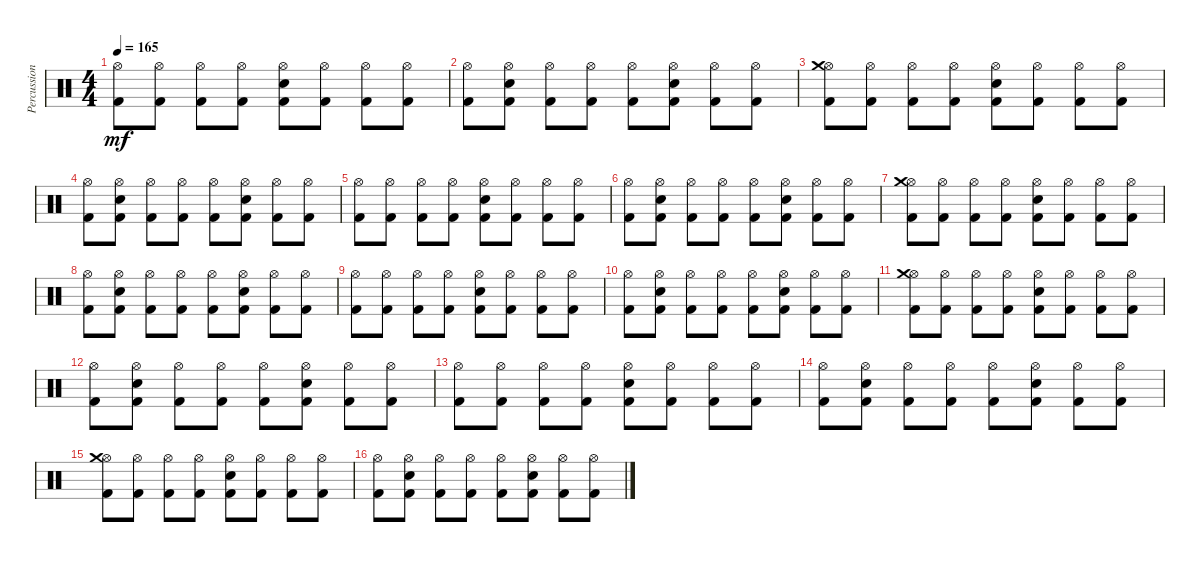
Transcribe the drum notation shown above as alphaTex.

\track ("Percussion" "Percussion") {instrument percussion}
\staff {score}
\articulation defaults
\ts (4 4)
\tempo 165
\clef neutral
\ks c
("Hi-Hat (open)" "Kick (hit) 2").8{dy mf} ("Hi-Hat (open)" "Kick (hit) 2").8 ("Hi-Hat (open)" "Kick (hit) 2").8 ("Hi-Hat (open)" "Kick (hit) 2").8 ("Hi-Hat (open)" "Electric Snare (hit)" "Kick (hit) 2").8 ("Hi-Hat (open)" "Kick (hit) 2").8 ("Hi-Hat (open)" "Kick (hit) 2").8 ("Hi-Hat (open)" "Kick (hit) 2").8 |
("Hi-Hat (open)" "Kick (hit) 2").8 ("Hi-Hat (open)" "Electric Snare (hit)" "Kick (hit) 2").8 ("Hi-Hat (open)" "Kick (hit) 2").8 ("Hi-Hat (open)" "Kick (hit) 2").8 ("Hi-Hat (open)" "Kick (hit) 2").8 ("Hi-Hat (open)" "Electric Snare (hit)" "Kick (hit) 2").8 ("Hi-Hat (open)" "Kick (hit) 2").8 ("Hi-Hat (open)" "Kick (hit) 2").8 |
("Hi-Hat (open)" "Crash medium (hit)" "Kick (hit) 2").8 ("Hi-Hat (open)" "Kick (hit) 2").8 ("Hi-Hat (open)" "Kick (hit) 2").8 ("Hi-Hat (open)" "Kick (hit) 2").8 ("Hi-Hat (open)" "Electric Snare (hit)" "Kick (hit) 2").8 ("Hi-Hat (open)" "Kick (hit) 2").8 ("Hi-Hat (open)" "Kick (hit) 2").8 ("Hi-Hat (open)" "Kick (hit) 2").8 |
("Hi-Hat (open)" "Kick (hit) 2").8 ("Hi-Hat (open)" "Electric Snare (hit)" "Kick (hit) 2").8 ("Hi-Hat (open)" "Kick (hit) 2").8 ("Hi-Hat (open)" "Kick (hit) 2").8 ("Hi-Hat (open)" "Kick (hit) 2").8 ("Hi-Hat (open)" "Electric Snare (hit)" "Kick (hit) 2").8 ("Hi-Hat (open)" "Kick (hit) 2").8 ("Hi-Hat (open)" "Kick (hit) 2").8 |
("Hi-Hat (open)" "Kick (hit) 2").8 ("Hi-Hat (open)" "Kick (hit) 2").8 ("Hi-Hat (open)" "Kick (hit) 2").8 ("Hi-Hat (open)" "Kick (hit) 2").8 ("Hi-Hat (open)" "Electric Snare (hit)" "Kick (hit) 2").8 ("Hi-Hat (open)" "Kick (hit) 2").8 ("Hi-Hat (open)" "Kick (hit) 2").8 ("Hi-Hat (open)" "Kick (hit) 2").8 |
("Hi-Hat (open)" "Kick (hit) 2").8 ("Hi-Hat (open)" "Electric Snare (hit)" "Kick (hit) 2").8 ("Hi-Hat (open)" "Kick (hit) 2").8 ("Hi-Hat (open)" "Kick (hit) 2").8 ("Hi-Hat (open)" "Kick (hit) 2").8 ("Hi-Hat (open)" "Electric Snare (hit)" "Kick (hit) 2").8 ("Hi-Hat (open)" "Kick (hit) 2").8 ("Hi-Hat (open)" "Kick (hit) 2").8 |
("Hi-Hat (open)" "Crash medium (hit)" "Kick (hit) 2").8 ("Hi-Hat (open)" "Kick (hit) 2").8 ("Hi-Hat (open)" "Kick (hit) 2").8 ("Hi-Hat (open)" "Kick (hit) 2").8 ("Hi-Hat (open)" "Electric Snare (hit)" "Kick (hit) 2").8 ("Hi-Hat (open)" "Kick (hit) 2").8 ("Hi-Hat (open)" "Kick (hit) 2").8 ("Hi-Hat (open)" "Kick (hit) 2").8 |
("Hi-Hat (open)" "Kick (hit) 2").8 ("Hi-Hat (open)" "Electric Snare (hit)" "Kick (hit) 2").8 ("Hi-Hat (open)" "Kick (hit) 2").8 ("Hi-Hat (open)" "Kick (hit) 2").8 ("Hi-Hat (open)" "Kick (hit) 2").8 ("Hi-Hat (open)" "Electric Snare (hit)" "Kick (hit) 2").8 ("Hi-Hat (open)" "Kick (hit) 2").8 ("Hi-Hat (open)" "Kick (hit) 2").8 |
("Hi-Hat (open)" "Kick (hit) 2").8 ("Hi-Hat (open)" "Kick (hit) 2").8 ("Hi-Hat (open)" "Kick (hit) 2").8 ("Hi-Hat (open)" "Kick (hit) 2").8 ("Hi-Hat (open)" "Electric Snare (hit)" "Kick (hit) 2").8 ("Hi-Hat (open)" "Kick (hit) 2").8 ("Hi-Hat (open)" "Kick (hit) 2").8 ("Hi-Hat (open)" "Kick (hit) 2").8 |
("Hi-Hat (open)" "Kick (hit) 2").8 ("Hi-Hat (open)" "Electric Snare (hit)" "Kick (hit) 2").8 ("Hi-Hat (open)" "Kick (hit) 2").8 ("Hi-Hat (open)" "Kick (hit) 2").8 ("Hi-Hat (open)" "Kick (hit) 2").8 ("Hi-Hat (open)" "Electric Snare (hit)" "Kick (hit) 2").8 ("Hi-Hat (open)" "Kick (hit) 2").8 ("Hi-Hat (open)" "Kick (hit) 2").8 |
("Hi-Hat (open)" "Crash medium (hit)" "Kick (hit) 2").8 ("Hi-Hat (open)" "Kick (hit) 2").8 ("Hi-Hat (open)" "Kick (hit) 2").8 ("Hi-Hat (open)" "Kick (hit) 2").8 ("Hi-Hat (open)" "Electric Snare (hit)" "Kick (hit) 2").8 ("Hi-Hat (open)" "Kick (hit) 2").8 ("Hi-Hat (open)" "Kick (hit) 2").8 ("Hi-Hat (open)" "Kick (hit) 2").8 |
("Hi-Hat (open)" "Kick (hit) 2").8 ("Hi-Hat (open)" "Electric Snare (hit)" "Kick (hit) 2").8 ("Hi-Hat (open)" "Kick (hit) 2").8 ("Hi-Hat (open)" "Kick (hit) 2").8 ("Hi-Hat (open)" "Kick (hit) 2").8 ("Hi-Hat (open)" "Electric Snare (hit)" "Kick (hit) 2").8 ("Hi-Hat (open)" "Kick (hit) 2").8 ("Hi-Hat (open)" "Kick (hit) 2").8 |
("Hi-Hat (open)" "Kick (hit) 2").8 ("Hi-Hat (open)" "Kick (hit) 2").8 ("Hi-Hat (open)" "Kick (hit) 2").8 ("Hi-Hat (open)" "Kick (hit) 2").8 ("Hi-Hat (open)" "Electric Snare (hit)" "Kick (hit) 2").8 ("Hi-Hat (open)" "Kick (hit) 2").8 ("Hi-Hat (open)" "Kick (hit) 2").8 ("Hi-Hat (open)" "Kick (hit) 2").8 |
("Hi-Hat (open)" "Kick (hit) 2").8 ("Hi-Hat (open)" "Electric Snare (hit)" "Kick (hit) 2").8 ("Hi-Hat (open)" "Kick (hit) 2").8 ("Hi-Hat (open)" "Kick (hit) 2").8 ("Hi-Hat (open)" "Kick (hit) 2").8 ("Hi-Hat (open)" "Electric Snare (hit)" "Kick (hit) 2").8 ("Hi-Hat (open)" "Kick (hit) 2").8 ("Hi-Hat (open)" "Kick (hit) 2").8 |
("Hi-Hat (open)" "Crash medium (hit)" "Kick (hit) 2").8 ("Hi-Hat (open)" "Kick (hit) 2").8 ("Hi-Hat (open)" "Kick (hit) 2").8 ("Hi-Hat (open)" "Kick (hit) 2").8 ("Hi-Hat (open)" "Electric Snare (hit)" "Kick (hit) 2").8 ("Hi-Hat (open)" "Kick (hit) 2").8 ("Hi-Hat (open)" "Kick (hit) 2").8 ("Hi-Hat (open)" "Kick (hit) 2").8 |
("Hi-Hat (open)" "Kick (hit) 2").8 ("Hi-Hat (open)" "Electric Snare (hit)" "Kick (hit) 2").8 ("Hi-Hat (open)" "Kick (hit) 2").8 ("Hi-Hat (open)" "Kick (hit) 2").8 ("Hi-Hat (open)" "Kick (hit) 2").8 ("Hi-Hat (open)" "Electric Snare (hit)" "Kick (hit) 2").8 ("Hi-Hat (open)" "Kick (hit) 2").8 ("Hi-Hat (open)" "Kick (hit) 2").8
